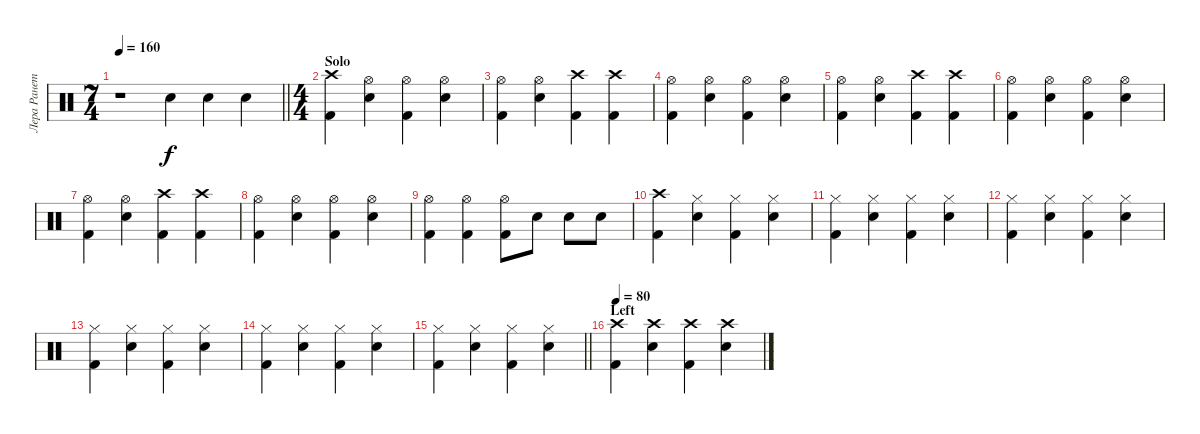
\track ("Лера Ранетка" "Лера Ранет") {instrument percussion}
\staff {score}
\articulation defaults
\ts (7 4)
\tempo 160
\clef neutral
\barLineRight lightlight
\ks c
r.1{dy f} "Snare (hit) 2".4 "Snare (hit) 2".4 "Snare (hit) 2".4 |
\ts (4 4)
\section ("" "Solo")
("Crash high (hit)" "Kick (hit) 2").4 ("Hi-Hat (open)" "Snare (hit) 2").4 ("Hi-Hat (open)" "Kick (hit) 2").4 ("Hi-Hat (open)" "Snare (hit) 2").4 |
("Hi-Hat (open)" "Kick (hit) 2").4 ("Hi-Hat (open)" "Snare (hit) 2").4 ("Crash high (hit)" "Kick (hit) 2").4 ("Crash high (hit)" "Kick (hit) 2").4 |
("Hi-Hat (open)" "Kick (hit) 2").4 ("Hi-Hat (open)" "Snare (hit) 2").4 ("Hi-Hat (open)" "Kick (hit) 2").4 ("Hi-Hat (open)" "Snare (hit) 2").4 |
("Hi-Hat (open)" "Kick (hit) 2").4 ("Hi-Hat (open)" "Snare (hit) 2").4 ("Crash high (hit)" "Kick (hit) 2").4 ("Crash high (hit)" "Kick (hit) 2").4 |
("Hi-Hat (open)" "Kick (hit) 2").4 ("Hi-Hat (open)" "Snare (hit) 2").4 ("Hi-Hat (open)" "Kick (hit) 2").4 ("Hi-Hat (open)" "Snare (hit) 2").4 |
("Hi-Hat (open)" "Kick (hit) 2").4 ("Hi-Hat (open)" "Snare (hit) 2").4 ("Crash high (hit)" "Kick (hit) 2").4 ("Crash high (hit)" "Kick (hit) 2").4 |
("Hi-Hat (open)" "Kick (hit) 2").4 ("Hi-Hat (open)" "Snare (hit) 2").4 ("Hi-Hat (open)" "Kick (hit) 2").4 ("Hi-Hat (open)" "Snare (hit) 2").4 |
("Hi-Hat (open)" "Kick (hit) 2").4 ("Hi-Hat (open)" "Kick (hit) 2").4 ("Hi-Hat (open)" "Kick (hit) 2").8 "Snare (hit) 2".8 "Snare (hit) 2".8 "Snare (hit) 2".8 |
("Crash high (hit)" "Kick (hit) 2").4 ("Hi-Hat (closed)" "Snare (hit) 2").4 ("Hi-Hat (closed)" "Kick (hit) 2").4 ("Hi-Hat (closed)" "Snare (hit) 2").4 |
("Hi-Hat (closed)" "Kick (hit) 2").4 ("Hi-Hat (closed)" "Snare (hit) 2").4 ("Hi-Hat (closed)" "Kick (hit) 2").4 ("Hi-Hat (closed)" "Snare (hit) 2").4 |
("Hi-Hat (closed)" "Kick (hit) 2").4 ("Hi-Hat (closed)" "Snare (hit) 2").4 ("Hi-Hat (closed)" "Kick (hit) 2").4 ("Hi-Hat (closed)" "Snare (hit) 2").4 |
("Hi-Hat (closed)" "Kick (hit) 2").4 ("Hi-Hat (closed)" "Snare (hit) 2").4 ("Hi-Hat (closed)" "Kick (hit) 2").4 ("Hi-Hat (closed)" "Snare (hit) 2").4 |
("Hi-Hat (closed)" "Kick (hit) 2").4 ("Hi-Hat (closed)" "Snare (hit) 2").4 ("Hi-Hat (closed)" "Kick (hit) 2").4 ("Hi-Hat (closed)" "Snare (hit) 2").4 |
\barLineRight lightlight
("Hi-Hat (closed)" "Kick (hit) 2").4 ("Hi-Hat (closed)" "Snare (hit) 2").4 ("Hi-Hat (closed)" "Kick (hit) 2").4 ("Hi-Hat (closed)" "Snare (hit) 2").4 |
\section ("" "Left")
\tempo 80
("Crash high (hit)" "Kick (hit) 2").4 ("Crash high (hit)" "Snare (hit) 2").4 ("Crash high (hit)" "Kick (hit) 2").4 ("Crash high (hit)" "Snare (hit) 2").4
